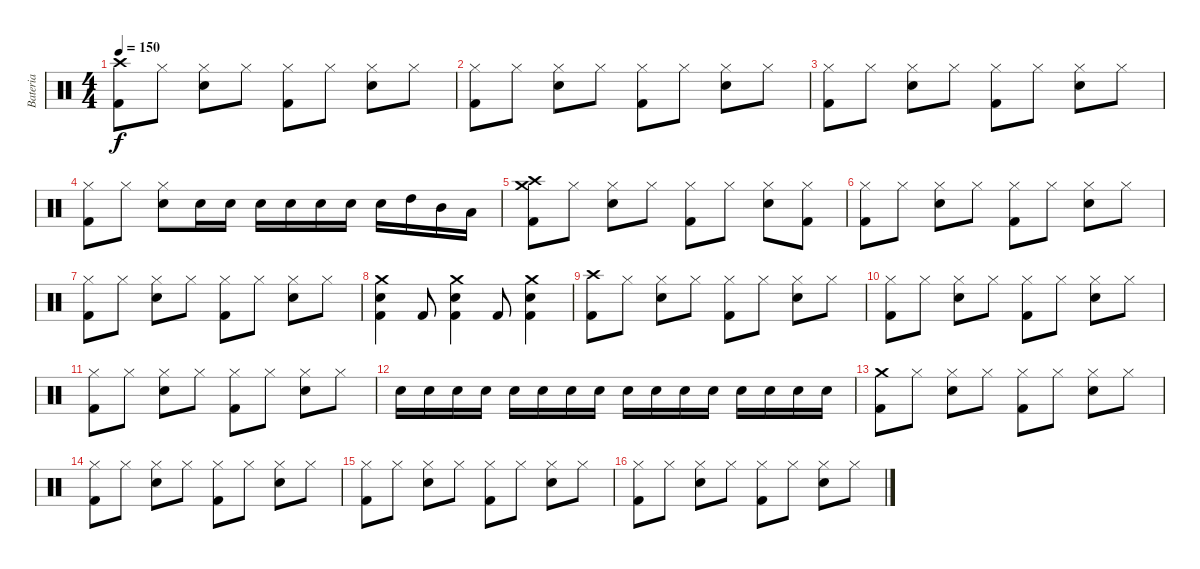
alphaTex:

\track ("Bateria" "Bateria") {instrument percussion}
\staff {score}
\articulation defaults
\ts (4 4)
\tempo 150
\clef neutral
\ks c
("Crash high (hit)" "Kick (hit) 2").8{dy f} "Hi-Hat (closed)".8 ("Hi-Hat (closed)" "Snare (hit) 2").8 "Hi-Hat (closed)".8 ("Hi-Hat (closed)" "Kick (hit) 2").8 "Hi-Hat (closed)".8 ("Hi-Hat (closed)" "Snare (hit) 2").8 "Hi-Hat (closed)".8 |
("Hi-Hat (closed)" "Kick (hit) 2").8 "Hi-Hat (closed)".8 ("Hi-Hat (closed)" "Snare (hit) 2").8 "Hi-Hat (closed)".8 ("Hi-Hat (closed)" "Kick (hit) 2").8 "Hi-Hat (closed)".8 ("Hi-Hat (closed)" "Snare (hit) 2").8 "Hi-Hat (closed)".8 |
("Hi-Hat (closed)" "Kick (hit) 2").8 "Hi-Hat (closed)".8 ("Hi-Hat (closed)" "Snare (hit) 2").8 "Hi-Hat (closed)".8 ("Hi-Hat (closed)" "Kick (hit) 2").8 "Hi-Hat (closed)".8 ("Hi-Hat (closed)" "Snare (hit) 2").8 "Hi-Hat (closed)".8 |
("Hi-Hat (closed)" "Kick (hit) 2").8 "Hi-Hat (closed)".8 ("Hi-Hat (closed)" "Snare (hit) 2").8 "Snare (hit) 2".16 "Snare (hit) 2".16 "Snare (hit) 2".16 "Snare (hit) 2".16 "Snare (hit) 2".16 "Snare (hit) 2".16 "Snare (hit) 2".16 "High Tom (hit)".16 "Mid Tom (hit)".16 "Low Tom (hit)".16 |
("Crash medium (hit)" "Crash high (hit)" "Kick (hit) 2").8 "Hi-Hat (closed)".8 ("Hi-Hat (closed)" "Snare (hit) 2").8 "Hi-Hat (closed)".8 ("Hi-Hat (closed)" "Kick (hit) 2").8 "Hi-Hat (closed)".8 ("Hi-Hat (closed)" "Snare (hit) 2").8 ("Hi-Hat (closed)" "Kick (hit) 2").8 |
("Hi-Hat (closed)" "Kick (hit) 2").8 "Hi-Hat (closed)".8 ("Hi-Hat (closed)" "Snare (hit) 2").8 "Hi-Hat (closed)".8 ("Hi-Hat (closed)" "Kick (hit) 2").8 "Hi-Hat (closed)".8 ("Hi-Hat (closed)" "Snare (hit) 2").8 "Hi-Hat (closed)".8 |
("Hi-Hat (closed)" "Kick (hit) 2").8 "Hi-Hat (closed)".8 ("Hi-Hat (closed)" "Snare (hit) 2").8 "Hi-Hat (closed)".8 ("Hi-Hat (closed)" "Kick (hit) 2").8 "Hi-Hat (closed)".8 ("Hi-Hat (closed)" "Snare (hit) 2").8 "Hi-Hat (closed)".8 |
("Crash medium (hit)" "Snare (hit) 2" "Kick (hit) 2").4 "Kick (hit) 2".8 ("Crash medium (hit)" "Snare (hit) 2" "Kick (hit) 2").4 "Kick (hit) 2".8 ("Crash medium (hit)" "Snare (hit) 2" "Kick (hit) 2").4 |
("Crash high (hit)" "Kick (hit) 2").8 "Hi-Hat (closed)".8 ("Hi-Hat (closed)" "Snare (hit) 2").8 "Hi-Hat (closed)".8 ("Hi-Hat (closed)" "Kick (hit) 2").8 "Hi-Hat (closed)".8 ("Hi-Hat (closed)" "Snare (hit) 2").8 "Hi-Hat (closed)".8 |
("Hi-Hat (closed)" "Kick (hit) 2").8 "Hi-Hat (closed)".8 ("Hi-Hat (closed)" "Snare (hit) 2").8 "Hi-Hat (closed)".8 ("Hi-Hat (closed)" "Kick (hit) 2").8 "Hi-Hat (closed)".8 ("Hi-Hat (closed)" "Snare (hit) 2").8 "Hi-Hat (closed)".8 |
("Hi-Hat (closed)" "Kick (hit) 2").8 "Hi-Hat (closed)".8 ("Hi-Hat (closed)" "Snare (hit) 2").8 "Hi-Hat (closed)".8 ("Hi-Hat (closed)" "Kick (hit) 2").8 "Hi-Hat (closed)".8 ("Hi-Hat (closed)" "Snare (hit) 2").8 "Hi-Hat (closed)".8 |
"Snare (hit) 2".16 "Snare (hit) 2".16 "Snare (hit) 2".16 "Snare (hit) 2".16 "Snare (hit) 2".16 "Snare (hit) 2".16 "Snare (hit) 2".16 "Snare (hit) 2".16 "Snare (hit) 2".16 "Snare (hit) 2".16 "Snare (hit) 2".16 "Snare (hit) 2".16 "Snare (hit) 2".16 "Snare (hit) 2".16 "Snare (hit) 2".16 "Snare (hit) 2".16 |
("Crash medium (hit)" "Kick (hit) 2").8 "Hi-Hat (closed)".8 ("Hi-Hat (closed)" "Snare (hit) 2").8 "Hi-Hat (closed)".8 ("Hi-Hat (closed)" "Kick (hit) 2").8 "Hi-Hat (closed)".8 ("Hi-Hat (closed)" "Snare (hit) 2").8 "Hi-Hat (closed)".8 |
("Hi-Hat (closed)" "Kick (hit) 2").8 "Hi-Hat (closed)".8 ("Hi-Hat (closed)" "Snare (hit) 2").8 "Hi-Hat (closed)".8 ("Hi-Hat (closed)" "Kick (hit) 2").8 "Hi-Hat (closed)".8 ("Hi-Hat (closed)" "Snare (hit) 2").8 "Hi-Hat (closed)".8 |
("Hi-Hat (closed)" "Kick (hit) 2").8 "Hi-Hat (closed)".8 ("Hi-Hat (closed)" "Snare (hit) 2").8 "Hi-Hat (closed)".8 ("Hi-Hat (closed)" "Kick (hit) 2").8 "Hi-Hat (closed)".8 ("Hi-Hat (closed)" "Snare (hit) 2").8 "Hi-Hat (closed)".8 |
("Hi-Hat (closed)" "Kick (hit) 2").8 "Hi-Hat (closed)".8 ("Hi-Hat (closed)" "Snare (hit) 2").8 "Hi-Hat (closed)".8 ("Hi-Hat (closed)" "Kick (hit) 2").8 "Hi-Hat (closed)".8 ("Hi-Hat (closed)" "Snare (hit) 2").8 "Hi-Hat (closed)".8
